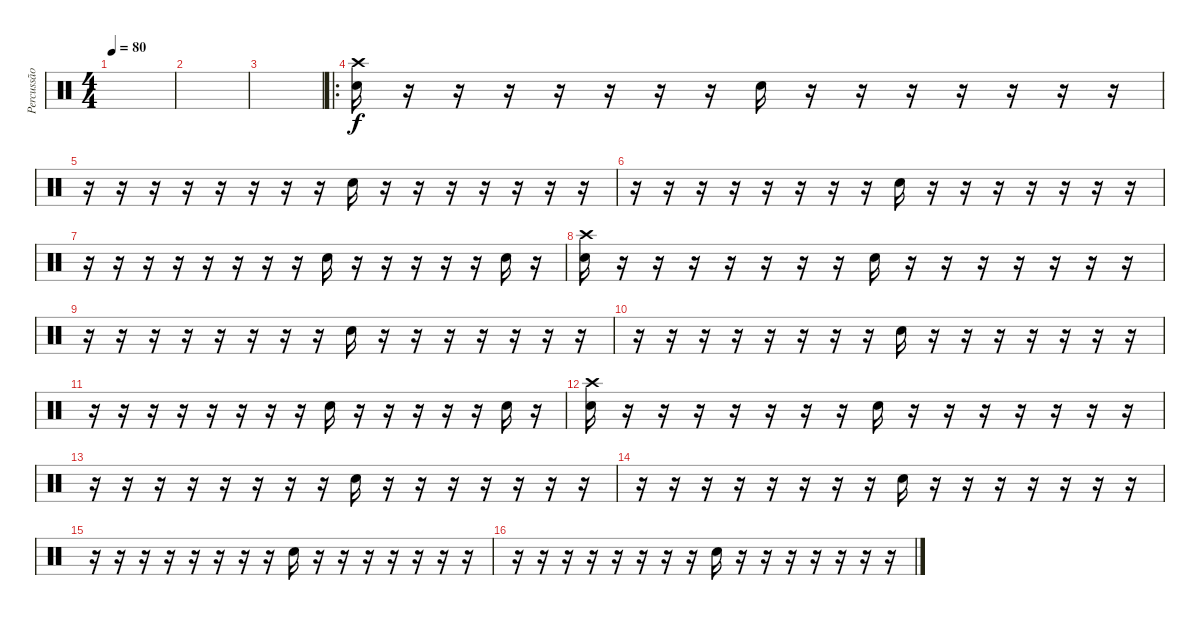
\track ("Percussão" "Percussão") {instrument percussion}
\staff {score}
\articulation defaults
\ts (4 4)
\tempo 80
\clef neutral
\ks c
|
|
|
\ro
("Crash high (hit)" "Electric Snare (hit)").16 r.16 r.16 r.16 r.16 r.16 r.16 r.16 "Electric Snare (hit)".16 r.16 r.16 r.16 r.16 r.16 r.16 r.16 |
r.16 r.16 r.16 r.16 r.16 r.16 r.16 r.16 "Electric Snare (hit)".16 r.16 r.16 r.16 r.16 r.16 r.16 r.16 |
r.16 r.16 r.16 r.16 r.16 r.16 r.16 r.16 "Electric Snare (hit)".16 r.16 r.16 r.16 r.16 r.16 r.16 r.16 |
r.16 r.16 r.16 r.16 r.16 r.16 r.16 r.16 "Electric Snare (hit)".16 r.16 r.16 r.16 r.16 r.16 "Electric Snare (hit)".16 r.16 |
("Crash high (hit)" "Electric Snare (hit)").16 r.16 r.16 r.16 r.16 r.16 r.16 r.16 "Electric Snare (hit)".16 r.16 r.16 r.16 r.16 r.16 r.16 r.16 |
r.16 r.16 r.16 r.16 r.16 r.16 r.16 r.16 "Electric Snare (hit)".16 r.16 r.16 r.16 r.16 r.16 r.16 r.16 |
r.16 r.16 r.16 r.16 r.16 r.16 r.16 r.16 "Electric Snare (hit)".16 r.16 r.16 r.16 r.16 r.16 r.16 r.16 |
r.16 r.16 r.16 r.16 r.16 r.16 r.16 r.16 "Electric Snare (hit)".16 r.16 r.16 r.16 r.16 r.16 "Electric Snare (hit)".16 r.16 |
("Crash high (hit)" "Electric Snare (hit)").16 r.16 r.16 r.16 r.16 r.16 r.16 r.16 "Electric Snare (hit)".16 r.16 r.16 r.16 r.16 r.16 r.16 r.16 |
r.16 r.16 r.16 r.16 r.16 r.16 r.16 r.16 "Electric Snare (hit)".16 r.16 r.16 r.16 r.16 r.16 r.16 r.16 |
r.16 r.16 r.16 r.16 r.16 r.16 r.16 r.16 "Electric Snare (hit)".16 r.16 r.16 r.16 r.16 r.16 r.16 r.16 |
r.16 r.16 r.16 r.16 r.16 r.16 r.16 r.16 "Electric Snare (hit)".16 r.16 r.16 r.16 r.16 r.16 r.16 r.16 |
r.16 r.16 r.16 r.16 r.16 r.16 r.16 r.16 "Electric Snare (hit)".16 r.16 r.16 r.16 r.16 r.16 r.16 r.16
